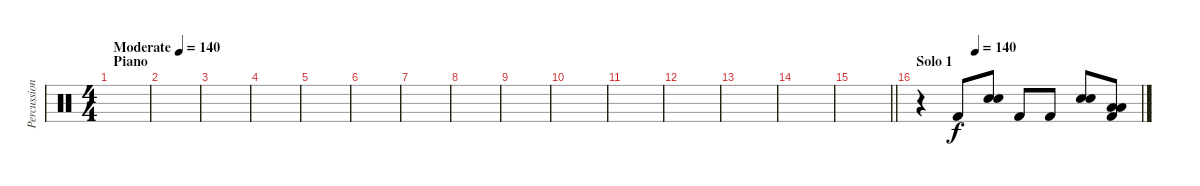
\track ("Percussions" "Percussion") {instrument percussion}
\staff {score}
\articulation defaults
\ts (4 4)
\section ("" "Piano")
\tempo (140 "Moderate")
\tempo 130
\tempo (140 "Moderate")
\clef neutral
\ks c
|
|
|
|
|
|
|
|
|
|
|
|
|
|
\barLineRight lightlight
|
\section ("" "Solo 1")
\tempo (140 0.25)
r.4 "Kick (hit) 2".8 ("Electric Snare (hit)" "Electric Snare (hit)").8 "Kick (hit) 2".8 "Kick (hit) 2".8 ("Electric Snare (hit)" "Electric Snare (hit)").8 ("Low Tom (hit)" "Low Tom (hit)" "Kick (hit) 2").8
